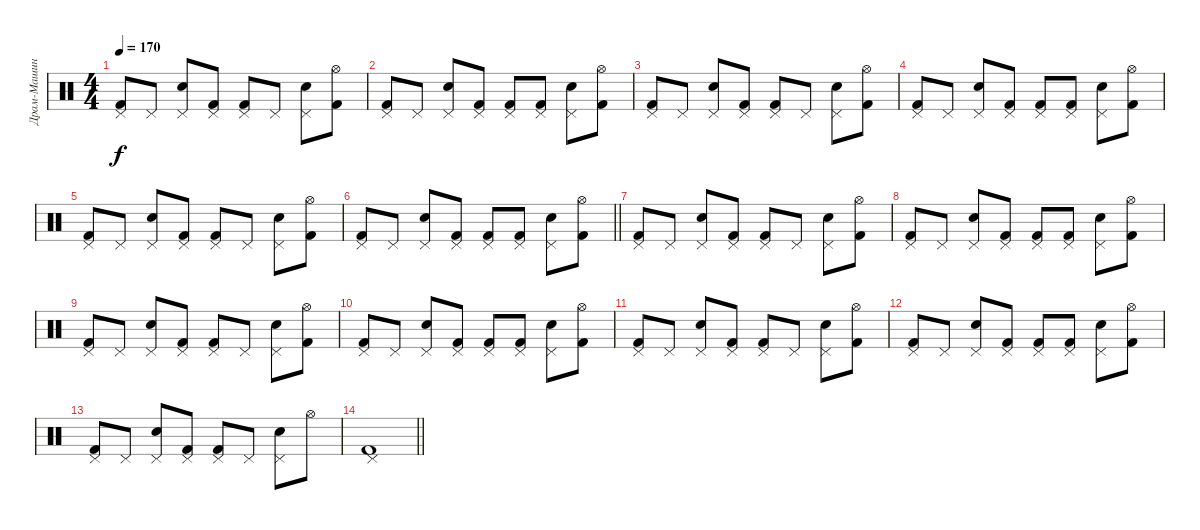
\track ("Драм-Машина" "Драм-Машин") {instrument percussion}
\staff {score}
\articulation defaults
\ts (4 4)
\tempo 170
\clef neutral
\ks c
("Pedal Hi-Hat (hit)" "Kick (hit) 2").8{dy f} "Pedal Hi-Hat (hit)".8 ("Pedal Hi-Hat (hit)" "Electric Snare (hit)").8 ("Pedal Hi-Hat (hit)" "Kick (hit) 2").8 ("Pedal Hi-Hat (hit)" "Kick (hit) 2").8 "Pedal Hi-Hat (hit)".8 ("Pedal Hi-Hat (hit)" "Electric Snare (hit)").8 ("Hi-Hat (open)" "Kick (hit) 2").8 |
("Pedal Hi-Hat (hit)" "Kick (hit) 2").8 "Pedal Hi-Hat (hit)".8 ("Pedal Hi-Hat (hit)" "Electric Snare (hit)").8 ("Pedal Hi-Hat (hit)" "Kick (hit) 2").8 ("Pedal Hi-Hat (hit)" "Kick (hit) 2").8 ("Pedal Hi-Hat (hit)" "Kick (hit) 2").8 ("Pedal Hi-Hat (hit)" "Electric Snare (hit)").8 ("Hi-Hat (open)" "Kick (hit) 2").8 |
("Pedal Hi-Hat (hit)" "Kick (hit) 2").8 "Pedal Hi-Hat (hit)".8 ("Pedal Hi-Hat (hit)" "Electric Snare (hit)").8 ("Pedal Hi-Hat (hit)" "Kick (hit) 2").8 ("Pedal Hi-Hat (hit)" "Kick (hit) 2").8 "Pedal Hi-Hat (hit)".8 ("Pedal Hi-Hat (hit)" "Electric Snare (hit)").8 ("Hi-Hat (open)" "Kick (hit) 2").8 |
("Pedal Hi-Hat (hit)" "Kick (hit) 2").8 "Pedal Hi-Hat (hit)".8 ("Pedal Hi-Hat (hit)" "Electric Snare (hit)").8 ("Pedal Hi-Hat (hit)" "Kick (hit) 2").8 ("Pedal Hi-Hat (hit)" "Kick (hit) 2").8 ("Pedal Hi-Hat (hit)" "Kick (hit) 2").8 ("Pedal Hi-Hat (hit)" "Electric Snare (hit)").8 ("Hi-Hat (open)" "Kick (hit) 2").8 |
("Pedal Hi-Hat (hit)" "Kick (hit) 2").8 "Pedal Hi-Hat (hit)".8 ("Pedal Hi-Hat (hit)" "Electric Snare (hit)").8 ("Pedal Hi-Hat (hit)" "Kick (hit) 2").8 ("Pedal Hi-Hat (hit)" "Kick (hit) 2").8 "Pedal Hi-Hat (hit)".8 ("Pedal Hi-Hat (hit)" "Electric Snare (hit)").8 ("Hi-Hat (open)" "Kick (hit) 2").8 |
\barLineRight lightlight
("Pedal Hi-Hat (hit)" "Kick (hit) 2").8 "Pedal Hi-Hat (hit)".8 ("Pedal Hi-Hat (hit)" "Electric Snare (hit)").8 ("Pedal Hi-Hat (hit)" "Kick (hit) 2").8 ("Pedal Hi-Hat (hit)" "Kick (hit) 2").8 ("Pedal Hi-Hat (hit)" "Kick (hit) 2").8 ("Pedal Hi-Hat (hit)" "Electric Snare (hit)").8 ("Hi-Hat (open)" "Kick (hit) 2").8 |
("Pedal Hi-Hat (hit)" "Kick (hit) 2").8 "Pedal Hi-Hat (hit)".8 ("Pedal Hi-Hat (hit)" "Electric Snare (hit)").8 ("Pedal Hi-Hat (hit)" "Kick (hit) 2").8 ("Pedal Hi-Hat (hit)" "Kick (hit) 2").8 "Pedal Hi-Hat (hit)".8 ("Pedal Hi-Hat (hit)" "Electric Snare (hit)").8 ("Hi-Hat (open)" "Kick (hit) 2").8 |
("Pedal Hi-Hat (hit)" "Kick (hit) 2").8 "Pedal Hi-Hat (hit)".8 ("Pedal Hi-Hat (hit)" "Electric Snare (hit)").8 ("Pedal Hi-Hat (hit)" "Kick (hit) 2").8 ("Pedal Hi-Hat (hit)" "Kick (hit) 2").8 ("Pedal Hi-Hat (hit)" "Kick (hit) 2").8 ("Pedal Hi-Hat (hit)" "Electric Snare (hit)").8 ("Hi-Hat (open)" "Kick (hit) 2").8 |
("Pedal Hi-Hat (hit)" "Kick (hit) 2").8 "Pedal Hi-Hat (hit)".8 ("Pedal Hi-Hat (hit)" "Electric Snare (hit)").8 ("Pedal Hi-Hat (hit)" "Kick (hit) 2").8 ("Pedal Hi-Hat (hit)" "Kick (hit) 2").8 "Pedal Hi-Hat (hit)".8 ("Pedal Hi-Hat (hit)" "Electric Snare (hit)").8 ("Hi-Hat (open)" "Kick (hit) 2").8 |
("Pedal Hi-Hat (hit)" "Kick (hit) 2").8 "Pedal Hi-Hat (hit)".8 ("Pedal Hi-Hat (hit)" "Electric Snare (hit)").8 ("Pedal Hi-Hat (hit)" "Kick (hit) 2").8 ("Pedal Hi-Hat (hit)" "Kick (hit) 2").8 ("Pedal Hi-Hat (hit)" "Kick (hit) 2").8 ("Pedal Hi-Hat (hit)" "Electric Snare (hit)").8 ("Hi-Hat (open)" "Kick (hit) 2").8 |
("Pedal Hi-Hat (hit)" "Kick (hit) 2").8 "Pedal Hi-Hat (hit)".8 ("Pedal Hi-Hat (hit)" "Electric Snare (hit)").8 ("Pedal Hi-Hat (hit)" "Kick (hit) 2").8 ("Pedal Hi-Hat (hit)" "Kick (hit) 2").8 "Pedal Hi-Hat (hit)".8 ("Pedal Hi-Hat (hit)" "Electric Snare (hit)").8 ("Hi-Hat (open)" "Kick (hit) 2").8 |
("Pedal Hi-Hat (hit)" "Kick (hit) 2").8 "Pedal Hi-Hat (hit)".8 ("Pedal Hi-Hat (hit)" "Electric Snare (hit)").8 ("Pedal Hi-Hat (hit)" "Kick (hit) 2").8 ("Pedal Hi-Hat (hit)" "Kick (hit) 2").8 ("Pedal Hi-Hat (hit)" "Kick (hit) 2").8 ("Pedal Hi-Hat (hit)" "Electric Snare (hit)").8 ("Hi-Hat (open)" "Kick (hit) 2").8 |
("Pedal Hi-Hat (hit)" "Kick (hit) 2").8 "Pedal Hi-Hat (hit)".8 ("Pedal Hi-Hat (hit)" "Electric Snare (hit)").8 ("Pedal Hi-Hat (hit)" "Kick (hit) 2").8 ("Pedal Hi-Hat (hit)" "Kick (hit) 2").8 "Pedal Hi-Hat (hit)".8 ("Pedal Hi-Hat (hit)" "Electric Snare (hit)").8 "Hi-Hat (open)".8 |
\barLineRight lightlight
("Pedal Hi-Hat (hit)" "Kick (hit) 2").1
